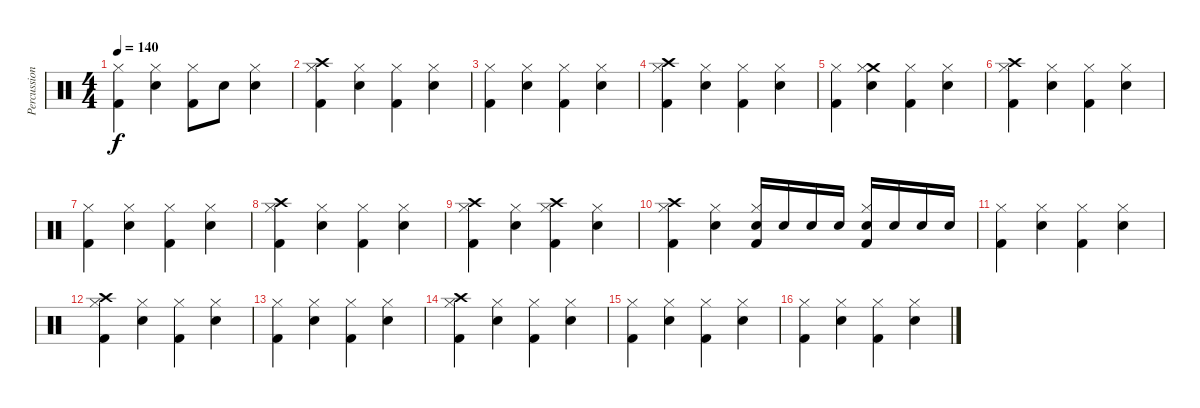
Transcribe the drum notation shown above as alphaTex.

\track ("Percussions" "Percussion") {instrument percussion}
\staff {score}
\articulation defaults
\ts (4 4)
\tempo 140
\clef neutral
\ks c
("Kick (hit) 2" "Hi-Hat (closed)").4{dy f} ("Snare (hit) 2" "Hi-Hat (closed)").4 ("Kick (hit) 2" "Hi-Hat (closed)").8 "Snare (hit) 2".8 ("Snare (hit) 2" "Hi-Hat (closed)").4 |
("Kick (hit) 2" "Crash high (hit)" "Hi-Hat (closed)").4 ("Snare (hit) 2" "Hi-Hat (closed)").4 ("Kick (hit) 2" "Hi-Hat (closed)").4 ("Snare (hit) 2" "Hi-Hat (closed)").4 |
("Kick (hit) 2" "Hi-Hat (closed)").4 ("Snare (hit) 2" "Hi-Hat (closed)").4 ("Kick (hit) 2" "Hi-Hat (closed)").4 ("Snare (hit) 2" "Hi-Hat (closed)").4 |
("Kick (hit) 2" "Crash high (hit)" "Hi-Hat (closed)").4 ("Snare (hit) 2" "Hi-Hat (closed)").4 ("Kick (hit) 2" "Hi-Hat (closed)").4 ("Snare (hit) 2" "Hi-Hat (closed)").4 |
("Kick (hit) 2" "Hi-Hat (closed)").4 ("Snare (hit) 2" "Crash medium (hit)" "Hi-Hat (closed)").4 ("Kick (hit) 2" "Hi-Hat (closed)").4 ("Snare (hit) 2" "Hi-Hat (closed)").4 |
("Kick (hit) 2" "Crash high (hit)" "Hi-Hat (closed)").4 ("Snare (hit) 2" "Hi-Hat (closed)").4 ("Kick (hit) 2" "Hi-Hat (closed)").4 ("Snare (hit) 2" "Hi-Hat (closed)").4 |
("Kick (hit) 2" "Hi-Hat (closed)").4 ("Snare (hit) 2" "Hi-Hat (closed)").4 ("Kick (hit) 2" "Hi-Hat (closed)").4 ("Snare (hit) 2" "Hi-Hat (closed)").4 |
("Kick (hit) 2" "Crash high (hit)" "Hi-Hat (closed)").4 ("Snare (hit) 2" "Hi-Hat (closed)").4 ("Kick (hit) 2" "Hi-Hat (closed)").4 ("Snare (hit) 2" "Hi-Hat (closed)").4 |
("Kick (hit) 2" "Crash high (hit)" "Hi-Hat (closed)").4 ("Snare (hit) 2" "Hi-Hat (closed)").4 ("Kick (hit) 2" "Crash high (hit)" "Hi-Hat (closed)").4 ("Snare (hit) 2" "Hi-Hat (closed)").4 |
("Kick (hit) 2" "Crash high (hit)" "Hi-Hat (closed)").4 ("Snare (hit) 2" "Hi-Hat (closed)").4 ("Kick (hit) 2" "Snare (hit) 2" "Hi-Hat (closed)").16 "Snare (hit) 2".16 "Snare (hit) 2".16 "Snare (hit) 2".16 ("Kick (hit) 2" "Snare (hit) 2" "Hi-Hat (closed)").16 "Snare (hit) 2".16 "Snare (hit) 2".16 "Snare (hit) 2".16 |
("Kick (hit) 2" "Hi-Hat (closed)").4 ("Snare (hit) 2" "Hi-Hat (closed)").4 ("Kick (hit) 2" "Hi-Hat (closed)").4 ("Snare (hit) 2" "Hi-Hat (closed)").4 |
("Kick (hit) 2" "Crash high (hit)" "Hi-Hat (closed)").4 ("Snare (hit) 2" "Hi-Hat (closed)").4 ("Kick (hit) 2" "Hi-Hat (closed)").4 ("Snare (hit) 2" "Hi-Hat (closed)").4 |
("Kick (hit) 2" "Hi-Hat (closed)").4 ("Snare (hit) 2" "Hi-Hat (closed)").4 ("Kick (hit) 2" "Hi-Hat (closed)").4 ("Snare (hit) 2" "Hi-Hat (closed)").4 |
("Kick (hit) 2" "Crash high (hit)" "Hi-Hat (closed)").4 ("Snare (hit) 2" "Hi-Hat (closed)").4 ("Kick (hit) 2" "Hi-Hat (closed)").4 ("Snare (hit) 2" "Hi-Hat (closed)").4 |
("Kick (hit) 2" "Hi-Hat (closed)").4 ("Snare (hit) 2" "Hi-Hat (closed)").4 ("Kick (hit) 2" "Hi-Hat (closed)").4 ("Snare (hit) 2" "Hi-Hat (closed)").4 |
("Kick (hit) 2" "Hi-Hat (closed)").4 ("Snare (hit) 2" "Hi-Hat (closed)").4 ("Kick (hit) 2" "Hi-Hat (closed)").4 ("Snare (hit) 2" "Hi-Hat (closed)").4
